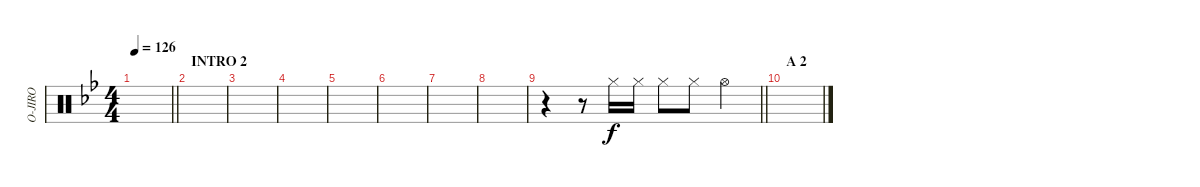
\track ("O-JIRO" "O-JIRO") {instrument percussion}
\staff {score}
\articulation defaults
\ts (4 4)
\tempo 126
\clef neutral
\barLineRight lightlight
\ks bb
|
\section ("" "INTRO 2")
|
|
|
|
|
|
|
\barLineRight lightlight
r.4 r.8 "Hi-Hat (closed)".16 "Hi-Hat (closed)".16 "Hi-Hat (closed)".8 "Hi-Hat (closed)".8 "Hi-Hat (open)".4 |
\section ("" "A 2")
